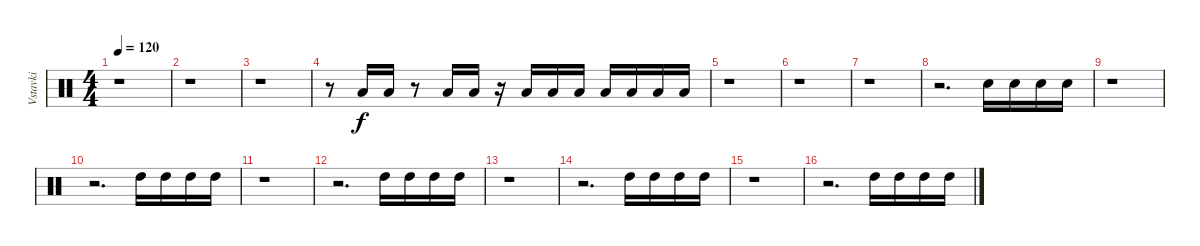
\track ("Vstavki" "Vstavki") {instrument percussion}
\staff {score}
\articulation defaults
\ts (4 4)
\tempo 120
\clef neutral
\ks c
r.1{dy f} |
r.1 |
r.1 |
r.8 "Low Tom (hit)".16 "Low Tom (hit)".16 r.8 "Low Tom (hit)".16 "Low Tom (hit)".16 r.16 "Low Tom (hit)".16 "Low Tom (hit)".16 "Low Tom (hit)".16 "Low Tom (hit)".16 "Low Tom (hit)".16 "Low Tom (hit)".16 "Low Tom (hit)".16 |
r.1 |
r.1 |
r.1 |
r.2{d} "Snare (hit) 2".16 "Snare (hit) 2".16 "Snare (hit) 2".16 "Snare (hit) 2".16 |
r.1 |
r.2{d} "High Tom (hit)".16 "High Tom (hit)".16 "High Tom (hit)".16 "High Tom (hit)".16 |
r.1 |
r.2{d} "High Tom (hit)".16 "High Tom (hit)".16 "High Tom (hit)".16 "High Tom (hit)".16 |
r.1 |
r.2{d} "High Tom (hit)".16 "High Tom (hit)".16 "High Tom (hit)".16 "High Tom (hit)".16 |
r.1 |
r.2{d} "High Tom (hit)".16 "High Tom (hit)".16 "High Tom (hit)".16 "High Tom (hit)".16
